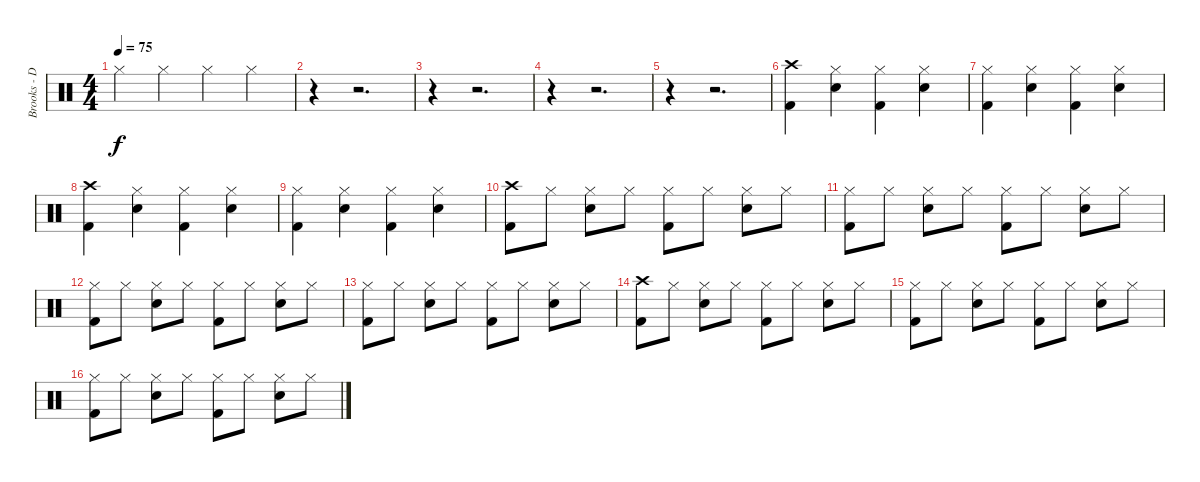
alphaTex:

\track ("Brooks - Drums" "Brooks - D") {instrument percussion}
\staff {score}
\articulation defaults
\ts (4 4)
\section ("" "")
\tempo 75
\clef neutral
\ks c "Hi-Hat (closed)".4{dy f} "Hi-Hat (closed)".4 "Hi-Hat (closed)".4 "Hi-Hat (closed)".4
|
r.4 r.2{d} |
r.4 r.2{d} |
r.4 r.2{d} |
r.4 r.2{d} |
\section ("" "")
("Kick (hit) 2" "Crash high (hit)").4 ("Snare (hit) 2" "Hi-Hat (closed)").4 ("Kick (hit) 2" "Hi-Hat (closed)").4 ("Snare (hit) 2" "Hi-Hat (closed)").4 |
("Kick (hit) 2" "Hi-Hat (closed)").4 ("Snare (hit) 2" "Hi-Hat (closed)").4 ("Kick (hit) 2" "Hi-Hat (closed)").4 ("Snare (hit) 2" "Hi-Hat (closed)").4 |
("Kick (hit) 2" "Crash high (hit)").4 ("Snare (hit) 2" "Hi-Hat (closed)").4 ("Kick (hit) 2" "Hi-Hat (closed)").4 ("Snare (hit) 2" "Hi-Hat (closed)").4 |
("Kick (hit) 2" "Hi-Hat (closed)").4 ("Snare (hit) 2" "Hi-Hat (closed)").4 ("Kick (hit) 2" "Hi-Hat (closed)").4 ("Snare (hit) 2" "Hi-Hat (closed)").4 |
\section ("" "")
("Kick (hit) 2" "Crash high (hit)").8 "Hi-Hat (closed)".8 ("Snare (hit) 2" "Hi-Hat (closed)").8 "Hi-Hat (closed)".8 ("Kick (hit) 2" "Hi-Hat (closed)").8 "Hi-Hat (closed)".8 ("Snare (hit) 2" "Hi-Hat (closed)").8 "Hi-Hat (closed)".8 |
("Kick (hit) 2" "Hi-Hat (closed)").8 "Hi-Hat (closed)".8 ("Snare (hit) 2" "Hi-Hat (closed)").8 "Hi-Hat (closed)".8 ("Kick (hit) 2" "Hi-Hat (closed)").8 "Hi-Hat (closed)".8 ("Snare (hit) 2" "Hi-Hat (closed)").8 "Hi-Hat (closed)".8 |
("Kick (hit) 2" "Hi-Hat (closed)").8 "Hi-Hat (closed)".8 ("Snare (hit) 2" "Hi-Hat (closed)").8 "Hi-Hat (closed)".8 ("Kick (hit) 2" "Hi-Hat (closed)").8 "Hi-Hat (closed)".8 ("Snare (hit) 2" "Hi-Hat (closed)").8 "Hi-Hat (closed)".8 |
("Kick (hit) 2" "Hi-Hat (closed)").8 "Hi-Hat (closed)".8 ("Snare (hit) 2" "Hi-Hat (closed)").8 "Hi-Hat (closed)".8 ("Kick (hit) 2" "Hi-Hat (closed)").8 "Hi-Hat (closed)".8 ("Snare (hit) 2" "Hi-Hat (closed)").8 "Hi-Hat (closed)".8 |
("Kick (hit) 2" "Crash high (hit)").8 "Hi-Hat (closed)".8 ("Snare (hit) 2" "Hi-Hat (closed)").8 "Hi-Hat (closed)".8 ("Kick (hit) 2" "Hi-Hat (closed)").8 "Hi-Hat (closed)".8 ("Snare (hit) 2" "Hi-Hat (closed)").8 "Hi-Hat (closed)".8 |
("Kick (hit) 2" "Hi-Hat (closed)").8 "Hi-Hat (closed)".8 ("Snare (hit) 2" "Hi-Hat (closed)").8 "Hi-Hat (closed)".8 ("Kick (hit) 2" "Hi-Hat (closed)").8 "Hi-Hat (closed)".8 ("Snare (hit) 2" "Hi-Hat (closed)").8 "Hi-Hat (closed)".8 |
("Kick (hit) 2" "Hi-Hat (closed)").8 "Hi-Hat (closed)".8 ("Snare (hit) 2" "Hi-Hat (closed)").8 "Hi-Hat (closed)".8 ("Kick (hit) 2" "Hi-Hat (closed)").8 "Hi-Hat (closed)".8 ("Snare (hit) 2" "Hi-Hat (closed)").8 "Hi-Hat (closed)".8
